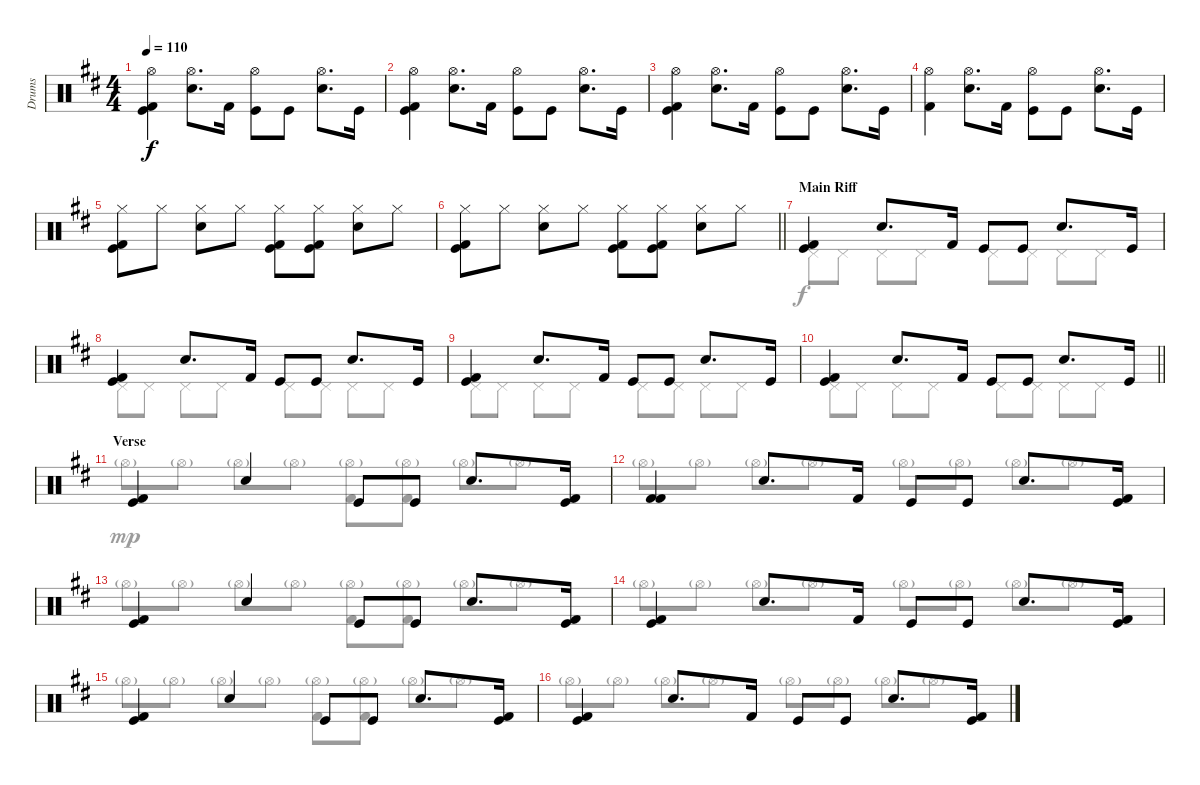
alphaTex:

\track ("Drums" "Drums") {instrument percussion}
\staff {score}
\articulation defaults
\voice
\ts (4 4)
\tempo 110
\clef neutral
\ks d
("Kick (hit) 2" "Kick (hit)" "Hi-Hat (open)").4{dy f} ("Snare (hit) 2" "Hi-Hat (open)").8{d} "Kick (hit) 2".16 ("Kick (hit)" "Hi-Hat (open)").8 "Kick (hit)".8 ("Snare (hit) 2" "Hi-Hat (open)").8{d} "Kick (hit)".16 |
("Kick (hit) 2" "Kick (hit)" "Hi-Hat (open)").4 ("Snare (hit) 2" "Hi-Hat (open)").8{d} "Kick (hit) 2".16 ("Kick (hit)" "Hi-Hat (open)").8 "Kick (hit)".8 ("Snare (hit) 2" "Hi-Hat (open)").8{d} "Kick (hit)".16 |
("Kick (hit) 2" "Kick (hit)" "Hi-Hat (open)").4 ("Snare (hit) 2" "Hi-Hat (open)").8{d} "Kick (hit) 2".16 ("Kick (hit)" "Hi-Hat (open)").8 "Kick (hit)".8 ("Snare (hit) 2" "Hi-Hat (open)").8{d} "Kick (hit)".16 |
("Kick (hit) 2" "Hi-Hat (open)").4 ("Snare (hit) 2" "Hi-Hat (open)").8{d} "Kick (hit) 2".16 ("Kick (hit)" "Hi-Hat (open)").8 "Kick (hit)".8 ("Snare (hit) 2" "Hi-Hat (open)").8{d} "Kick (hit)".16 |
("Hi-Hat (closed)" "Kick (hit)" "Kick (hit) 2").8 "Hi-Hat (closed)".8 ("Hi-Hat (closed)" "Electric Snare (hit)").8 "Hi-Hat (closed)".8 ("Hi-Hat (closed)" "Kick (hit) 2" "Kick (hit)").8 ("Hi-Hat (closed)" "Kick (hit) 2" "Kick (hit)").8 ("Hi-Hat (closed)" "Electric Snare (hit)").8 "Hi-Hat (closed)".8 |
\barLineRight lightlight
("Hi-Hat (closed)" "Kick (hit)" "Kick (hit) 2").8 "Hi-Hat (closed)".8 ("Hi-Hat (closed)" "Electric Snare (hit)").8 "Hi-Hat (closed)".8 ("Hi-Hat (closed)" "Kick (hit) 2" "Kick (hit)").8 ("Hi-Hat (closed)" "Kick (hit) 2" "Kick (hit)").8 ("Hi-Hat (closed)" "Electric Snare (hit)").8 "Hi-Hat (closed)".8 |
\section ("" "Main Riff")
("Kick (hit) 2" "Kick (hit)").4 "Snare (hit) 2".8{d} "Kick (hit) 2".16 "Kick (hit)".8 "Kick (hit)".8 "Snare (hit) 2".8{d} "Kick (hit)".16 |
("Kick (hit) 2" "Kick (hit)").4 "Snare (hit) 2".8{d} "Kick (hit) 2".16 "Kick (hit)".8 "Kick (hit)".8 "Snare (hit) 2".8{d} "Kick (hit)".16 |
("Kick (hit) 2" "Kick (hit)").4 "Snare (hit) 2".8{d} "Kick (hit) 2".16 "Kick (hit)".8 "Kick (hit)".8 "Snare (hit) 2".8{d} "Kick (hit)".16 |
\barLineRight lightlight
("Kick (hit) 2" "Kick (hit)").4 "Snare (hit) 2".8{d} "Kick (hit) 2".16 "Kick (hit)".8 "Kick (hit)".8 "Snare (hit) 2".8{d} "Kick (hit)".16 |
\section ("" "Verse")
("Kick (hit) 2" "Kick (hit)").4 "Snare (hit) 2".4 "Kick (hit)".8 "Kick (hit)".8 "Snare (hit) 2".8{d} ("Kick (hit)" "Kick (hit) 2").16 |
("Kick (hit) 2" "Kick (hit) 2").4 "Snare (hit) 2".8{d} "Kick (hit) 2".16 "Kick (hit)".8 "Kick (hit)".8 "Snare (hit) 2".8{d} ("Kick (hit)" "Kick (hit) 2").16 |
("Kick (hit) 2" "Kick (hit)").4 "Snare (hit) 2".4 "Kick (hit)".8 "Kick (hit)".8 "Snare (hit) 2".8{d} ("Kick (hit)" "Kick (hit) 2").16 |
("Kick (hit) 2" "Kick (hit)").4 "Snare (hit) 2".8{d} "Kick (hit) 2".16 "Kick (hit)".8 "Kick (hit)".8 "Snare (hit) 2".8{d} ("Kick (hit)" "Kick (hit) 2").16 |
("Kick (hit) 2" "Kick (hit)").4 "Snare (hit) 2".4 "Kick (hit)".8 "Kick (hit)".8 "Snare (hit) 2".8{d} ("Kick (hit)" "Kick (hit) 2").16 |
("Kick (hit) 2" "Kick (hit)").4 "Snare (hit) 2".8{d} "Kick (hit) 2".16 "Kick (hit)".8 "Kick (hit)".8 "Snare (hit) 2".8{d} ("Kick (hit)" "Kick (hit) 2").16
\voice
\clef neutral
\ottava regular
\simile none
\ks d
|
|
|
|
|
\barLineRight lightlight
|
"Pedal Hi-Hat (hit)".8 "Pedal Hi-Hat (hit)".8 "Pedal Hi-Hat (hit)".8 "Pedal Hi-Hat (hit)".8 "Pedal Hi-Hat (hit)".8 "Pedal Hi-Hat (hit)".8 "Pedal Hi-Hat (hit)".8 "Pedal Hi-Hat (hit)".8 |
"Pedal Hi-Hat (hit)".8 "Pedal Hi-Hat (hit)".8 "Pedal Hi-Hat (hit)".8 "Pedal Hi-Hat (hit)".8 "Pedal Hi-Hat (hit)".8 "Pedal Hi-Hat (hit)".8 "Pedal Hi-Hat (hit)".8 "Pedal Hi-Hat (hit)".8 |
"Pedal Hi-Hat (hit)".8 "Pedal Hi-Hat (hit)".8 "Pedal Hi-Hat (hit)".8 "Pedal Hi-Hat (hit)".8 "Pedal Hi-Hat (hit)".8 "Pedal Hi-Hat (hit)".8 "Pedal Hi-Hat (hit)".8 "Pedal Hi-Hat (hit)".8 |
\barLineRight lightlight "Pedal Hi-Hat (hit)".8 "Pedal Hi-Hat (hit)".8 "Pedal Hi-Hat (hit)".8 "Pedal Hi-Hat (hit)".8 "Pedal Hi-Hat (hit)".8 "Pedal Hi-Hat (hit)".8 "Pedal Hi-Hat (hit)".8 "Pedal Hi-Hat (hit)".8
|
"Hi-Hat (open)"{g}.8{dy mp} "Hi-Hat (open)"{g}.8 "Hi-Hat (open)"{g}.8 "Hi-Hat (open)"{g}.8 ("Kick (hit) 2" "Hi-Hat (open)"{g}).8 ("Kick (hit) 2" "Hi-Hat (open)"{g}).8 "Hi-Hat (open)"{g}.8 "Hi-Hat (open)"{g}.8 |
"Hi-Hat (open)"{g}.8 "Hi-Hat (open)"{g}.8 "Hi-Hat (open)"{g}.8 "Hi-Hat (open)"{g}.8 "Hi-Hat (open)"{g}.8 "Hi-Hat (open)"{g}.8 "Hi-Hat (open)"{g}.8 "Hi-Hat (open)"{g}.8 |
"Hi-Hat (open)"{g}.8 "Hi-Hat (open)"{g}.8 "Hi-Hat (open)"{g}.8 "Hi-Hat (open)"{g}.8 ("Kick (hit) 2" "Hi-Hat (open)"{g}).8 ("Kick (hit) 2" "Hi-Hat (open)"{g}).8 "Hi-Hat (open)"{g}.8 "Hi-Hat (open)"{g}.8 |
"Hi-Hat (open)"{g}.8 "Hi-Hat (open)"{g}.8 "Hi-Hat (open)"{g}.8 "Hi-Hat (open)"{g}.8 "Hi-Hat (open)"{g}.8 "Hi-Hat (open)"{g}.8 "Hi-Hat (open)"{g}.8 "Hi-Hat (open)"{g}.8 |
"Hi-Hat (open)"{g}.8 "Hi-Hat (open)"{g}.8 "Hi-Hat (open)"{g}.8 "Hi-Hat (open)"{g}.8 ("Kick (hit) 2" "Hi-Hat (open)"{g}).8 ("Kick (hit) 2" "Hi-Hat (open)"{g}).8 "Hi-Hat (open)"{g}.8 "Hi-Hat (open)"{g}.8 |
"Hi-Hat (open)"{g}.8 "Hi-Hat (open)"{g}.8 "Hi-Hat (open)"{g}.8 "Hi-Hat (open)"{g}.8 "Hi-Hat (open)"{g}.8 "Hi-Hat (open)"{g}.8 "Hi-Hat (open)"{g}.8 "Hi-Hat (open)"{g}.8
